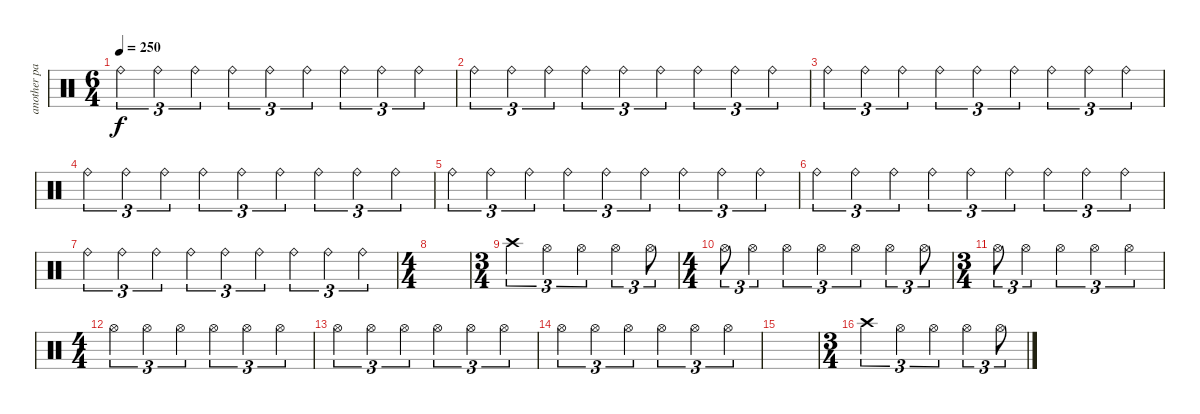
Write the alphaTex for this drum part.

\track ("another part of metti" "another pa") {instrument percussion}
\staff {score}
\articulation defaults
\ts (6 4)
\tempo 250
\clef neutral
\ks c "Ride (bell)".4{tu (3 2) dy f} "Ride (bell)".4{tu (3 2)} "Ride (bell)".4{tu (3 2)} "Ride (bell)".4{tu (3 2)} "Ride (bell)".4{tu (3 2)} "Ride (bell)".4{tu (3 2)} "Ride (bell)".4{tu (3 2)} "Ride (bell)".4{tu (3 2)} "Ride (bell)".4{tu (3 2)}
|
"Ride (bell)".4{tu (3 2)} "Ride (bell)".4{tu (3 2)} "Ride (bell)".4{tu (3 2)} "Ride (bell)".4{tu (3 2)} "Ride (bell)".4{tu (3 2)} "Ride (bell)".4{tu (3 2)} "Ride (bell)".4{tu (3 2)} "Ride (bell)".4{tu (3 2)} "Ride (bell)".4{tu (3 2)} |
"Ride (bell)".4{tu (3 2)} "Ride (bell)".4{tu (3 2)} "Ride (bell)".4{tu (3 2)} "Ride (bell)".4{tu (3 2)} "Ride (bell)".4{tu (3 2)} "Ride (bell)".4{tu (3 2)} "Ride (bell)".4{tu (3 2)} "Ride (bell)".4{tu (3 2)} "Ride (bell)".4{tu (3 2)} |
"Ride (bell)".4{tu (3 2)} "Ride (bell)".4{tu (3 2)} "Ride (bell)".4{tu (3 2)} "Ride (bell)".4{tu (3 2)} "Ride (bell)".4{tu (3 2)} "Ride (bell)".4{tu (3 2)} "Ride (bell)".4{tu (3 2)} "Ride (bell)".4{tu (3 2)} "Ride (bell)".4{tu (3 2)} |
"Ride (bell)".4{tu (3 2)} "Ride (bell)".4{tu (3 2)} "Ride (bell)".4{tu (3 2)} "Ride (bell)".4{tu (3 2)} "Ride (bell)".4{tu (3 2)} "Ride (bell)".4{tu (3 2)} "Ride (bell)".4{tu (3 2)} "Ride (bell)".4{tu (3 2)} "Ride (bell)".4{tu (3 2)} |
"Ride (bell)".4{tu (3 2)} "Ride (bell)".4{tu (3 2)} "Ride (bell)".4{tu (3 2)} "Ride (bell)".4{tu (3 2)} "Ride (bell)".4{tu (3 2)} "Ride (bell)".4{tu (3 2)} "Ride (bell)".4{tu (3 2)} "Ride (bell)".4{tu (3 2)} "Ride (bell)".4{tu (3 2)} |
"Ride (bell)".4{tu (3 2)} "Ride (bell)".4{tu (3 2)} "Ride (bell)".4{tu (3 2)} "Ride (bell)".4{tu (3 2)} "Ride (bell)".4{tu (3 2)} "Ride (bell)".4{tu (3 2)} "Ride (bell)".4{tu (3 2)} "Ride (bell)".4{tu (3 2)} "Ride (bell)".4{tu (3 2)} |
\ts (4 4)
|
\ts (3 4)
"Crash high (hit)".4{tu (3 2)} "Hi-Hat (open)".4{tu (3 2)} "Hi-Hat (open)".4{tu (3 2)} "Hi-Hat (open)".4{tu (3 2)} "Hi-Hat (open)".8{tu (3 2)} |
\ts (4 4)
"Hi-Hat (open)".8{tu (3 2)} "Hi-Hat (open)".4{tu (3 2)} "Hi-Hat (open)".4{tu (3 2)} "Hi-Hat (open)".4{tu (3 2)} "Hi-Hat (open)".4{tu (3 2)} "Hi-Hat (open)".4{tu (3 2)} "Hi-Hat (open)".8{tu (3 2)} |
\ts (3 4)
"Hi-Hat (open)".8{tu (3 2)} "Hi-Hat (open)".4{tu (3 2)} "Hi-Hat (open)".4{tu (3 2)} "Hi-Hat (open)".4{tu (3 2)} "Hi-Hat (open)".4{tu (3 2)} |
\ts (4 4)
"Hi-Hat (open)".4{tu (3 2)} "Hi-Hat (open)".4{tu (3 2)} "Hi-Hat (open)".4{tu (3 2)} "Hi-Hat (open)".4{tu (3 2)} "Hi-Hat (open)".4{tu (3 2)} "Hi-Hat (open)".4{tu (3 2)} |
"Hi-Hat (open)".4{tu (3 2)} "Hi-Hat (open)".4{tu (3 2)} "Hi-Hat (open)".4{tu (3 2)} "Hi-Hat (open)".4{tu (3 2)} "Hi-Hat (open)".4{tu (3 2)} "Hi-Hat (open)".4{tu (3 2)} |
"Hi-Hat (open)".4{tu (3 2)} "Hi-Hat (open)".4{tu (3 2)} "Hi-Hat (open)".4{tu (3 2)} "Hi-Hat (open)".4{tu (3 2)} "Hi-Hat (open)".4{tu (3 2)} "Hi-Hat (open)".4{tu (3 2)} |
|
\ts (3 4)
"Crash high (hit)".4{tu (3 2)} "Hi-Hat (open)".4{tu (3 2)} "Hi-Hat (open)".4{tu (3 2)} "Hi-Hat (open)".4{tu (3 2)} "Hi-Hat (open)".8{tu (3 2)}
